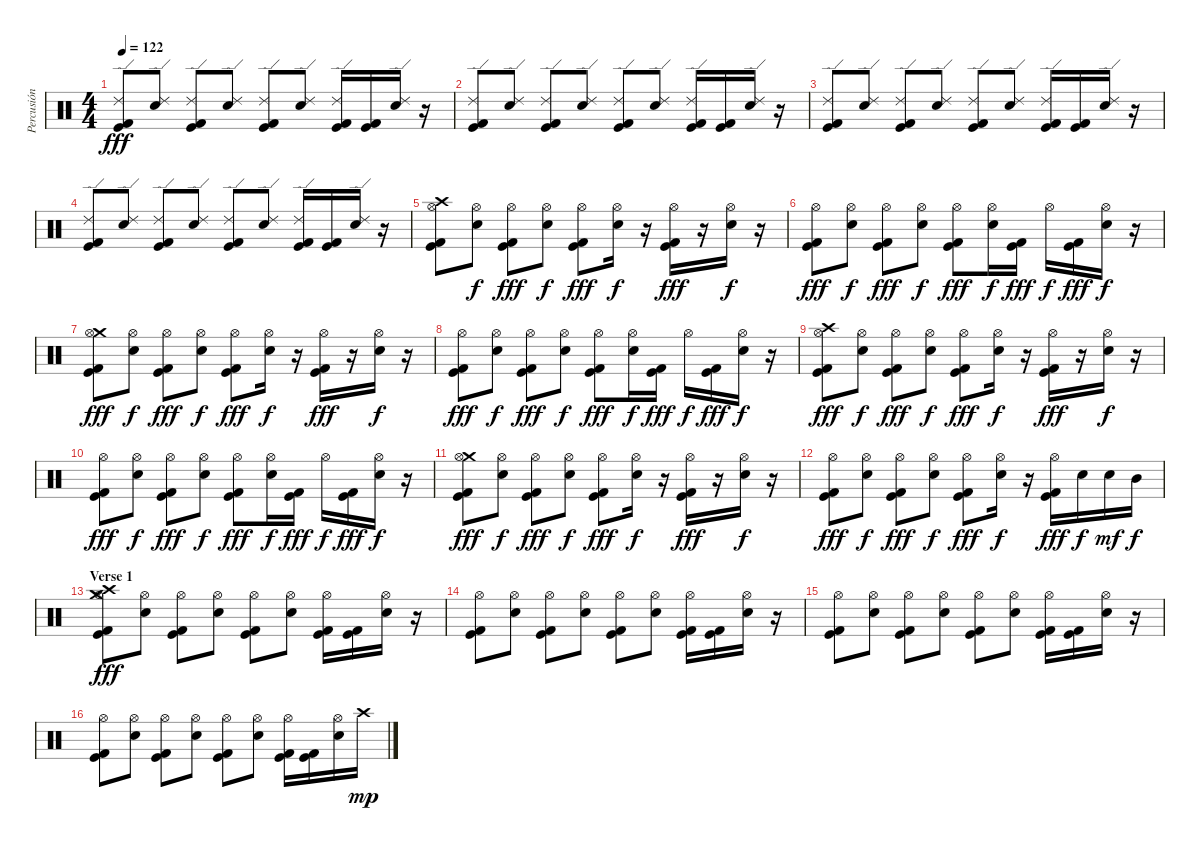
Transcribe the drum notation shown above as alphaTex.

\track ("Percusión" "Percusión") {instrument percussion}
\staff {score}
\articulation defaults
\ts (4 4)
\tempo 122
\clef neutral
\ks c
("Ride (edge) 2" "Kick (hit)" "Kick (hit) 2").8{dy fff} ("Ride (edge) 2" "Electric Snare (hit)").8 ("Ride (edge) 2" "Kick (hit)" "Kick (hit) 2").8 ("Ride (edge) 2" "Electric Snare (hit)").8 ("Ride (edge) 2" "Kick (hit)" "Kick (hit) 2").8 ("Ride (edge) 2" "Electric Snare (hit)").8 ("Ride (edge) 2" "Kick (hit)" "Kick (hit) 2").16 ("Kick (hit)" "Kick (hit) 2").16 ("Ride (edge) 2" "Electric Snare (hit)").16 r.16 |
("Ride (edge) 2" "Kick (hit)" "Kick (hit) 2").8 ("Ride (edge) 2" "Electric Snare (hit)").8 ("Ride (edge) 2" "Kick (hit)" "Kick (hit) 2").8 ("Ride (edge) 2" "Electric Snare (hit)").8 ("Ride (edge) 2" "Kick (hit)" "Kick (hit) 2").8 ("Ride (edge) 2" "Electric Snare (hit)").8 ("Ride (edge) 2" "Kick (hit)" "Kick (hit) 2").16 ("Kick (hit)" "Kick (hit) 2").16 ("Ride (edge) 2" "Electric Snare (hit)").16 r.16 |
("Ride (edge) 2" "Kick (hit)" "Kick (hit) 2").8 ("Ride (edge) 2" "Electric Snare (hit)").8 ("Ride (edge) 2" "Kick (hit)" "Kick (hit) 2").8 ("Ride (edge) 2" "Electric Snare (hit)").8 ("Ride (edge) 2" "Kick (hit)" "Kick (hit) 2").8 ("Ride (edge) 2" "Electric Snare (hit)").8 ("Ride (edge) 2" "Kick (hit)" "Kick (hit) 2").16 ("Kick (hit)" "Kick (hit) 2").16 ("Ride (edge) 2" "Electric Snare (hit)").16 r.16 |
("Ride (edge) 2" "Kick (hit)" "Kick (hit) 2").8 ("Ride (edge) 2" "Electric Snare (hit)").8 ("Ride (edge) 2" "Kick (hit)" "Kick (hit) 2").8 ("Ride (edge) 2" "Electric Snare (hit)").8 ("Ride (edge) 2" "Kick (hit)" "Kick (hit) 2").8 ("Ride (edge) 2" "Electric Snare (hit)").8 ("Ride (edge) 2" "Kick (hit)" "Kick (hit) 2").16 ("Kick (hit)" "Kick (hit) 2").16 ("Ride (edge) 2" "Electric Snare (hit)").16 r.16 |
("Crash high (hit)" "Hi-Hat (open)" "Kick (hit)" "Kick (hit) 2").8 ("Hi-Hat (open)" "Electric Snare (hit)").8{dy f} ("Hi-Hat (open)" "Kick (hit)" "Kick (hit) 2").8{dy fff} ("Hi-Hat (open)" "Electric Snare (hit)").8{dy f} ("Hi-Hat (open)" "Kick (hit)" "Kick (hit) 2").8{dy fff} ("Hi-Hat (open)" "Electric Snare (hit)").16{dy f} r.16 ("Hi-Hat (open)" "Kick (hit)" "Kick (hit) 2").16{dy fff} r.16 ("Hi-Hat (open)" "Electric Snare (hit)").16{dy f} r.16 |
("Hi-Hat (open)" "Kick (hit)" "Kick (hit) 2").8{dy fff} ("Hi-Hat (open)" "Electric Snare (hit)").8{dy f} ("Hi-Hat (open)" "Kick (hit)" "Kick (hit) 2").8{dy fff} ("Hi-Hat (open)" "Electric Snare (hit)").8{dy f} ("Hi-Hat (open)" "Kick (hit)" "Kick (hit) 2").8{dy fff} ("Hi-Hat (open)" "Electric Snare (hit)").16{dy f} ("Kick (hit)" "Kick (hit) 2").16{dy fff} "Hi-Hat (open)".16{dy f} ("Kick (hit)" "Kick (hit) 2").16{dy fff} ("Hi-Hat (open)" "Electric Snare (hit)").16{dy f} r.16 |
("Crash medium (hit)" "Hi-Hat (open)" "Kick (hit)" "Kick (hit) 2").8{dy fff} ("Hi-Hat (open)" "Electric Snare (hit)").8{dy f} ("Hi-Hat (open)" "Kick (hit)" "Kick (hit) 2").8{dy fff} ("Hi-Hat (open)" "Electric Snare (hit)").8{dy f} ("Hi-Hat (open)" "Kick (hit)" "Kick (hit) 2").8{dy fff} ("Hi-Hat (open)" "Electric Snare (hit)").16{dy f} r.16 ("Hi-Hat (open)" "Kick (hit)" "Kick (hit) 2").16{dy fff} r.16 ("Hi-Hat (open)" "Electric Snare (hit)").16{dy f} r.16 |
("Hi-Hat (open)" "Kick (hit)" "Kick (hit) 2").8{dy fff} ("Hi-Hat (open)" "Electric Snare (hit)").8{dy f} ("Hi-Hat (open)" "Kick (hit)" "Kick (hit) 2").8{dy fff} ("Hi-Hat (open)" "Electric Snare (hit)").8{dy f} ("Hi-Hat (open)" "Kick (hit)" "Kick (hit) 2").8{dy fff} ("Hi-Hat (open)" "Electric Snare (hit)").16{dy f} ("Kick (hit)" "Kick (hit) 2").16{dy fff} "Hi-Hat (open)".16{dy f} ("Kick (hit)" "Kick (hit) 2").16{dy fff} ("Hi-Hat (open)" "Electric Snare (hit)").16{dy f} r.16 |
("Crash high (hit)" "Hi-Hat (open)" "Kick (hit)" "Kick (hit) 2").8{dy fff} ("Hi-Hat (open)" "Electric Snare (hit)").8{dy f} ("Hi-Hat (open)" "Kick (hit)" "Kick (hit) 2").8{dy fff} ("Hi-Hat (open)" "Electric Snare (hit)").8{dy f} ("Hi-Hat (open)" "Kick (hit)" "Kick (hit) 2").8{dy fff} ("Hi-Hat (open)" "Electric Snare (hit)").16{dy f} r.16 ("Hi-Hat (open)" "Kick (hit)" "Kick (hit) 2").16{dy fff} r.16 ("Hi-Hat (open)" "Electric Snare (hit)").16{dy f} r.16 |
("Hi-Hat (open)" "Kick (hit)" "Kick (hit) 2").8{dy fff} ("Hi-Hat (open)" "Electric Snare (hit)").8{dy f} ("Hi-Hat (open)" "Kick (hit)" "Kick (hit) 2").8{dy fff} ("Hi-Hat (open)" "Electric Snare (hit)").8{dy f} ("Hi-Hat (open)" "Kick (hit)" "Kick (hit) 2").8{dy fff} ("Hi-Hat (open)" "Electric Snare (hit)").16{dy f} ("Kick (hit)" "Kick (hit) 2").16{dy fff} "Hi-Hat (open)".16{dy f} ("Kick (hit)" "Kick (hit) 2").16{dy fff} ("Hi-Hat (open)" "Electric Snare (hit)").16{dy f} r.16 |
("Crash medium (hit)" "Hi-Hat (open)" "Kick (hit)" "Kick (hit) 2").8{dy fff} ("Hi-Hat (open)" "Electric Snare (hit)").8{dy f} ("Hi-Hat (open)" "Kick (hit)" "Kick (hit) 2").8{dy fff} ("Hi-Hat (open)" "Electric Snare (hit)").8{dy f} ("Hi-Hat (open)" "Kick (hit)" "Kick (hit) 2").8{dy fff} ("Hi-Hat (open)" "Electric Snare (hit)").16{dy f} r.16 ("Hi-Hat (open)" "Kick (hit)" "Kick (hit) 2").16{dy fff} r.16 ("Hi-Hat (open)" "Electric Snare (hit)").16{dy f} r.16 |
("Hi-Hat (open)" "Kick (hit)" "Kick (hit) 2").8{dy fff} ("Hi-Hat (open)" "Electric Snare (hit)").8{dy f} ("Hi-Hat (open)" "Kick (hit)" "Kick (hit) 2").8{dy fff} ("Hi-Hat (open)" "Electric Snare (hit)").8{dy f} ("Hi-Hat (open)" "Kick (hit)" "Kick (hit) 2").8{dy fff} ("Hi-Hat (open)" "Electric Snare (hit)").16{dy f} r.16 ("Hi-Hat (open)" "Kick (hit)" "Kick (hit) 2").16{dy fff} "Electric Snare (hit)".16{dy f} "Electric Snare (hit)".16{dy mf} "Mid Tom (hit)".16{dy f} |
\section ("" "Verse 1")
("Crash medium (hit)" "Crash high (hit)" "Hi-Hat (open)" "Kick (hit)" "Kick (hit) 2").8{dy fff} ("Hi-Hat (open)" "Electric Snare (hit)").8 ("Hi-Hat (open)" "Kick (hit)" "Kick (hit) 2").8 ("Hi-Hat (open)" "Electric Snare (hit)").8 ("Hi-Hat (open)" "Kick (hit)" "Kick (hit) 2").8 ("Hi-Hat (open)" "Electric Snare (hit)").8 ("Hi-Hat (open)" "Kick (hit)" "Kick (hit) 2").16 ("Kick (hit)" "Kick (hit) 2").16 ("Hi-Hat (open)" "Electric Snare (hit)").16 r.16 |
("Hi-Hat (open)" "Kick (hit)" "Kick (hit) 2").8 ("Hi-Hat (open)" "Electric Snare (hit)").8 ("Hi-Hat (open)" "Kick (hit)" "Kick (hit) 2").8 ("Hi-Hat (open)" "Electric Snare (hit)").8 ("Hi-Hat (open)" "Kick (hit)" "Kick (hit) 2").8 ("Hi-Hat (open)" "Electric Snare (hit)").8 ("Hi-Hat (open)" "Kick (hit)" "Kick (hit) 2").16 ("Kick (hit)" "Kick (hit) 2").16 ("Hi-Hat (open)" "Electric Snare (hit)").16 r.16 |
("Hi-Hat (open)" "Kick (hit)" "Kick (hit) 2").8 ("Hi-Hat (open)" "Electric Snare (hit)").8 ("Hi-Hat (open)" "Kick (hit)" "Kick (hit) 2").8 ("Hi-Hat (open)" "Electric Snare (hit)").8 ("Hi-Hat (open)" "Kick (hit)" "Kick (hit) 2").8 ("Hi-Hat (open)" "Electric Snare (hit)").8 ("Hi-Hat (open)" "Kick (hit)" "Kick (hit) 2").16 ("Kick (hit)" "Kick (hit) 2").16 ("Hi-Hat (open)" "Electric Snare (hit)").16 r.16 |
("Hi-Hat (open)" "Kick (hit)" "Kick (hit) 2").8 ("Hi-Hat (open)" "Electric Snare (hit)").8 ("Hi-Hat (open)" "Kick (hit)" "Kick (hit) 2").8 ("Hi-Hat (open)" "Electric Snare (hit)").8 ("Hi-Hat (open)" "Kick (hit)" "Kick (hit) 2").8 ("Hi-Hat (open)" "Electric Snare (hit)").8 ("Hi-Hat (open)" "Kick (hit)" "Kick (hit) 2").16 ("Kick (hit)" "Kick (hit) 2").16 ("Hi-Hat (open)" "Electric Snare (hit)").16 "Crash high (hit)".16{dy mp}
